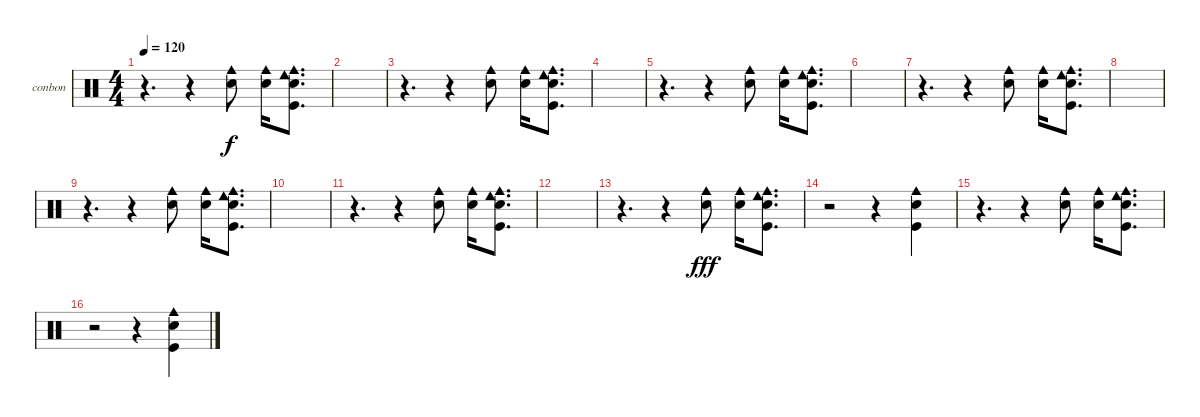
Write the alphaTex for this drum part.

\defaultSystemsLayout 4
\bracketExtendMode groupsimilarinstruments
\firstSystemTrackNameOrientation horizontal
\otherSystemsTrackNameOrientation horizontal
\track ("Bongos N Congas" "conbon") {instrument percussion}
\staff {score}
\articulation defaults
\ts (4 4)
\tempo 120
\clef neutral
\scale
0.333333
\ks c
r.4{d dy f} r.4 ("Cowbell medium (hit)" "Snare (hit) 2").8 ("Cowbell medium (hit)" "Snare (hit) 2").16 ("Kick (hit)" "Cowbell medium (hit)" "Cowbell low (hit)" "Snare (hit) 2").8{d} |
\scale
0.333333 |
\scale
0.333333 r.4{d} r.4 ("Cowbell medium (hit)" "Snare (hit) 2").8 ("Cowbell medium (hit)" "Snare (hit) 2").16 ("Kick (hit)" "Cowbell medium (hit)" "Cowbell low (hit)" "Snare (hit) 2").8{d} |
\scale
0.333333 |
\scale
0.333333 r.4{d} r.4 ("Cowbell medium (hit)" "Snare (hit) 2").8 ("Cowbell medium (hit)" "Snare (hit) 2").16 ("Kick (hit)" "Cowbell medium (hit)" "Cowbell low (hit)" "Snare (hit) 2").8{d} |
\scale
0.333333 |
\scale
0.333333 r.4{d} r.4 ("Cowbell medium (hit)" "Snare (hit) 2").8 ("Cowbell medium (hit)" "Snare (hit) 2").16 ("Kick (hit)" "Cowbell medium (hit)" "Cowbell low (hit)" "Snare (hit) 2").8{d} |
\scale
0.333333 |
\scale
0.333333 r.4{d} r.4 ("Cowbell medium (hit)" "Snare (hit) 2").8 ("Cowbell medium (hit)" "Snare (hit) 2").16 ("Kick (hit)" "Cowbell medium (hit)" "Cowbell low (hit)" "Snare (hit) 2").8{d} |
\scale
0.333333 |
\scale
0.333333 r.4{d} r.4 ("Cowbell medium (hit)" "Snare (hit) 2").8 ("Cowbell medium (hit)" "Snare (hit) 2").16 ("Kick (hit)" "Cowbell medium (hit)" "Cowbell low (hit)" "Snare (hit) 2").8{d} |
\scale
0.333333 |
\scale
0.333333 r.4{d} r.4 ("Cowbell medium (hit)" "Snare (hit) 2").8{dy fff} ("Cowbell medium (hit)" "Snare (hit) 2").16 ("Kick (hit)" "Cowbell medium (hit)" "Cowbell low (hit)" "Snare (hit) 2").8{d} |
\scale
0.333333 r.2 r.4 ("Snare (hit) 2" "Kick (hit)" "Cowbell medium (hit)").4 |
\scale
0.333333 r.4{d} r.4 ("Cowbell medium (hit)" "Snare (hit) 2").8 ("Cowbell medium (hit)" "Snare (hit) 2").16 ("Kick (hit)" "Cowbell medium (hit)" "Cowbell low (hit)" "Snare (hit) 2").8{d} |
\scale
0.333333 r.2 r.4 ("Snare (hit) 2" "Kick (hit)" "Cowbell medium (hit)").4
